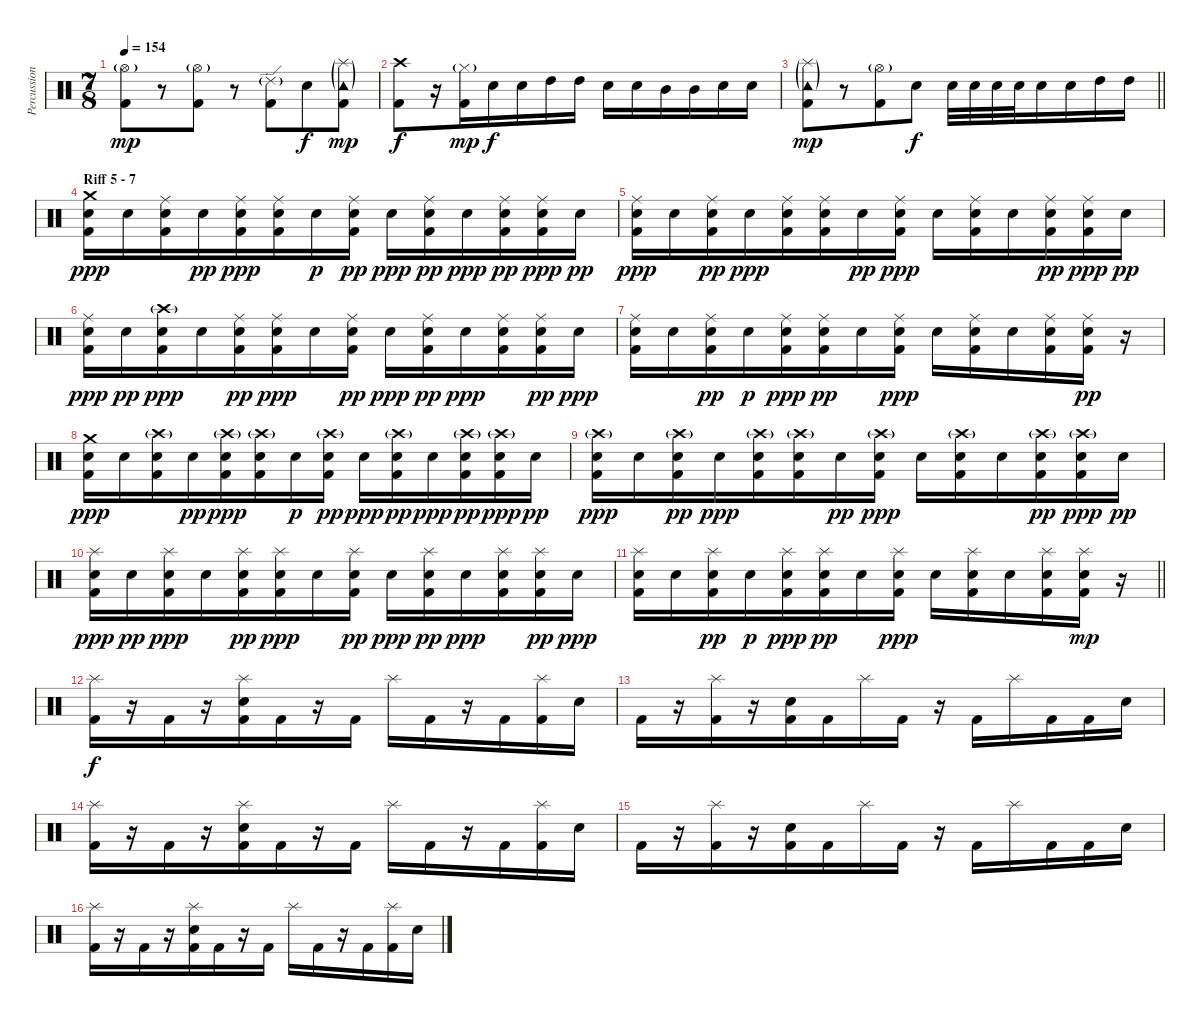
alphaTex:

\track ("Percussions" "Percussion") {instrument percussion}
\staff {score}
\articulation defaults
\ts (7 8)
\tempo 154
\clef neutral
\ks c
("Hi-Hat (open)"{g} "Kick (hit) 2").8{dy mp} r.8 ("Hi-Hat (open)"{g} "Kick (hit) 2").8 r.8 ("Ride (edge) 2"{g} "Kick (hit) 2").8 "Electric Snare (hit)".8{dy f} ("Tambourine (hit)"{g} "Splash (hit)"{g} "Kick (hit) 2").8{dy mp} |
("Crash high (hit)" "Kick (hit) 2").8{dy f} r.16 ("Hi-Hat (closed)"{g} "Kick (hit) 2").16{dy mp} "Electric Snare (hit)".16{dy f} "Electric Snare (hit)".16 "High Tom (hit)".16 "High Tom (hit)".16 "Electric Snare (hit)".16 "Electric Snare (hit)".16 "Mid Tom (hit)".16 "Mid Tom (hit)".16 "Electric Snare (hit)".16 "Electric Snare (hit)".16 |
\barLineRight lightlight
("Tambourine (hit)"{g} "Splash (hit)"{g} "Kick (hit) 2").8{dy mp} r.8 ("Hi-Hat (open)"{g} "Kick (hit) 2").8 "Electric Snare (hit)".8{dy f} "Electric Snare (hit)".32 "Electric Snare (hit)".32 "Electric Snare (hit)".32 "Electric Snare (hit)".32 "Electric Snare (hit)".16 "Electric Snare (hit)".16 "High Tom (hit)".16 "High Tom (hit)".16 |
\section ("" "Riff 5 - 7")
("Crash medium (hit)" "Electric Snare (hit)" "Kick (hit) 2").16{dy ppp} "Electric Snare (hit)".16 ("Ride (middle)" "Electric Snare (hit)" "Kick (hit) 2").16 "Electric Snare (hit)".16{dy pp} ("Ride (middle)" "Electric Snare (hit)" "Kick (hit) 2").16{dy ppp} ("Ride (middle)" "Electric Snare (hit)" "Kick (hit) 2").16 "Electric Snare (hit)".16{dy p} ("Ride (middle)" "Electric Snare (hit)" "Kick (hit) 2").16{dy pp} "Electric Snare (hit)".16{dy ppp} ("Ride (middle)" "Electric Snare (hit)" "Kick (hit) 2").16{dy pp} "Electric Snare (hit)".16{dy ppp} ("Ride (middle)" "Electric Snare (hit)" "Kick (hit) 2").16{dy pp} ("Ride (middle)" "Electric Snare (hit)" "Kick (hit) 2").16{dy ppp} "Electric Snare (hit)".16{dy pp} |
("Ride (middle)" "Electric Snare (hit)" "Kick (hit) 2").16{dy ppp} "Electric Snare (hit)".16 ("Ride (middle)" "Electric Snare (hit)" "Kick (hit) 2").16{dy pp} "Electric Snare (hit)".16{dy ppp} ("Ride (middle)" "Electric Snare (hit)" "Kick (hit) 2").16 ("Ride (middle)" "Electric Snare (hit)" "Kick (hit) 2").16 "Electric Snare (hit)".16{dy pp} ("Ride (middle)" "Electric Snare (hit)" "Kick (hit) 2").16{dy ppp} "Electric Snare (hit)".16 ("Ride (middle)" "Electric Snare (hit)" "Kick (hit) 2").16 "Electric Snare (hit)".16 ("Ride (middle)" "Electric Snare (hit)" "Kick (hit) 2").16{dy pp} ("Ride (middle)" "Electric Snare (hit)" "Kick (hit) 2").16{dy ppp} "Electric Snare (hit)".16{dy pp} |
("Ride (middle)" "Electric Snare (hit)" "Kick (hit) 2").16{dy ppp} "Electric Snare (hit)".16{dy pp} ("Crash high (hit)"{g} "Electric Snare (hit)" "Kick (hit) 2").16{dy ppp} "Electric Snare (hit)".16 ("Ride (middle)" "Electric Snare (hit)" "Kick (hit) 2").16{dy pp} ("Ride (middle)" "Electric Snare (hit)" "Kick (hit) 2").16{dy ppp} "Electric Snare (hit)".16 ("Ride (middle)" "Electric Snare (hit)" "Kick (hit) 2").16{dy pp} "Electric Snare (hit)".16{dy ppp} ("Ride (middle)" "Electric Snare (hit)" "Kick (hit) 2").16{dy pp} "Electric Snare (hit)".16{dy ppp} ("Ride (middle)" "Electric Snare (hit)" "Kick (hit) 2").16 ("Ride (middle)" "Electric Snare (hit)" "Kick (hit) 2").16{dy pp} "Electric Snare (hit)".16{dy ppp} |
("Ride (middle)" "Electric Snare (hit)" "Kick (hit) 2").16 "Electric Snare (hit)".16 ("Ride (middle)" "Electric Snare (hit)" "Kick (hit) 2").16{dy pp} "Electric Snare (hit)".16{dy p} ("Ride (middle)" "Electric Snare (hit)" "Kick (hit) 2").16{dy ppp} ("Ride (middle)" "Electric Snare (hit)" "Kick (hit) 2").16{dy pp} "Electric Snare (hit)".16 ("Ride (middle)" "Electric Snare (hit)" "Kick (hit) 2").16{dy ppp} "Electric Snare (hit)".16 ("Ride (middle)" "Electric Snare (hit)" "Kick (hit) 2").16 "Electric Snare (hit)".16 ("Ride (middle)" "Electric Snare (hit)" "Kick (hit) 2").16 ("Ride (middle)" "Electric Snare (hit)" "Kick (hit) 2").16{dy pp} r.16 |
("Crash medium (hit)" "Electric Snare (hit)" "Kick (hit) 2").16{dy ppp} "Electric Snare (hit)".16 ("Crash high (hit)"{g} "Electric Snare (hit)" "Kick (hit) 2").16 "Electric Snare (hit)".16{dy pp} ("Crash high (hit)"{g} "Electric Snare (hit)" "Kick (hit) 2").16{dy ppp} ("Crash high (hit)"{g} "Electric Snare (hit)" "Kick (hit) 2").16 "Electric Snare (hit)".16{dy p} ("Crash high (hit)"{g} "Electric Snare (hit)" "Kick (hit) 2").16{dy pp} "Electric Snare (hit)".16{dy ppp} ("Crash high (hit)"{g} "Electric Snare (hit)" "Kick (hit) 2").16{dy pp} "Electric Snare (hit)".16{dy ppp} ("Crash high (hit)"{g} "Electric Snare (hit)" "Kick (hit) 2").16{dy pp} ("Crash high (hit)"{g} "Electric Snare (hit)" "Kick (hit) 2").16{dy ppp} "Electric Snare (hit)".16{dy pp} |
("Crash high (hit)"{g} "Electric Snare (hit)" "Kick (hit) 2").16{dy ppp} "Electric Snare (hit)".16 ("Crash high (hit)"{g} "Electric Snare (hit)" "Kick (hit) 2").16{dy pp} "Electric Snare (hit)".16{dy ppp} ("Crash high (hit)"{g} "Electric Snare (hit)" "Kick (hit) 2").16 ("Crash high (hit)"{g} "Electric Snare (hit)" "Kick (hit) 2").16 "Electric Snare (hit)".16{dy pp} ("Crash high (hit)"{g} "Electric Snare (hit)" "Kick (hit) 2").16{dy ppp} "Electric Snare (hit)".16 ("Crash high (hit)"{g} "Electric Snare (hit)" "Kick (hit) 2").16 "Electric Snare (hit)".16 ("Crash high (hit)"{g} "Electric Snare (hit)" "Kick (hit) 2").16{dy pp} ("Crash high (hit)"{g} "Electric Snare (hit)" "Kick (hit) 2").16{dy ppp} "Electric Snare (hit)".16{dy pp} |
("Splash (hit)" "Electric Snare (hit)" "Kick (hit) 2").16{dy ppp} "Electric Snare (hit)".16{dy pp} ("Splash (hit)" "Electric Snare (hit)" "Kick (hit) 2").16{dy ppp} "Electric Snare (hit)".16 ("Splash (hit)" "Electric Snare (hit)" "Kick (hit) 2").16{dy pp} ("Splash (hit)" "Electric Snare (hit)" "Kick (hit) 2").16{dy ppp} "Electric Snare (hit)".16 ("Splash (hit)" "Electric Snare (hit)" "Kick (hit) 2").16{dy pp} "Electric Snare (hit)".16{dy ppp} ("Splash (hit)" "Electric Snare (hit)" "Kick (hit) 2").16{dy pp} "Electric Snare (hit)".16{dy ppp} ("Splash (hit)" "Electric Snare (hit)" "Kick (hit) 2").16 ("Splash (hit)" "Electric Snare (hit)" "Kick (hit) 2").16{dy pp} "Electric Snare (hit)".16{dy ppp} |
\barLineRight lightlight
("Splash (hit)" "Electric Snare (hit)" "Kick (hit) 2").16 "Electric Snare (hit)".16 ("Splash (hit)" "Electric Snare (hit)" "Kick (hit) 2").16{dy pp} "Electric Snare (hit)".16{dy p} ("Splash (hit)" "Electric Snare (hit)" "Kick (hit) 2").16{dy ppp} ("Splash (hit)" "Electric Snare (hit)" "Kick (hit) 2").16{dy pp} "Electric Snare (hit)".16 ("Splash (hit)" "Electric Snare (hit)" "Kick (hit) 2").16{dy ppp} "Electric Snare (hit)".16 ("Splash (hit)" "Electric Snare (hit)" "Kick (hit) 2").16 "Electric Snare (hit)".16 ("Splash (hit)" "Electric Snare (hit)" "Kick (hit) 2").16 ("Splash (hit)" "Electric Snare (hit)" "Kick (hit) 2").16{dy mp} r.16 |
\section ("" "")
("Splash (hit)" "Kick (hit) 2").16{dy f} r.16 "Kick (hit) 2".16 r.16 ("Splash (hit)" "Electric Snare (hit)" "Kick (hit) 2").16 "Kick (hit) 2".16 r.16 "Kick (hit) 2".16 "Splash (hit)".16 "Kick (hit) 2".16 r.16 "Kick (hit) 2".16 ("Splash (hit)" "Kick (hit) 2").16 "Electric Snare (hit)".16 |
"Kick (hit) 2".16 r.16 ("Splash (hit)" "Kick (hit) 2").16 r.16 ("Electric Snare (hit)" "Kick (hit) 2").16 "Kick (hit) 2".16 "Splash (hit)".16 "Kick (hit) 2".16 r.16 "Kick (hit) 2".16 "Splash (hit)".16 "Kick (hit) 2".16 "Kick (hit) 2".16 "Electric Snare (hit)".16 |
("Splash (hit)" "Kick (hit) 2").16 r.16 "Kick (hit) 2".16 r.16 ("Splash (hit)" "Electric Snare (hit)" "Kick (hit) 2").16 "Kick (hit) 2".16 r.16 "Kick (hit) 2".16 "Splash (hit)".16 "Kick (hit) 2".16 r.16 "Kick (hit) 2".16 ("Splash (hit)" "Kick (hit) 2").16 "Electric Snare (hit)".16 |
"Kick (hit) 2".16 r.16 ("Splash (hit)" "Kick (hit) 2").16 r.16 ("Electric Snare (hit)" "Kick (hit) 2").16 "Kick (hit) 2".16 "Splash (hit)".16 "Kick (hit) 2".16 r.16 "Kick (hit) 2".16 "Splash (hit)".16 "Kick (hit) 2".16 "Kick (hit) 2".16 "Electric Snare (hit)".16 |
("Splash (hit)" "Kick (hit) 2").16 r.16 "Kick (hit) 2".16 r.16 ("Splash (hit)" "Electric Snare (hit)" "Kick (hit) 2").16 "Kick (hit) 2".16 r.16 "Kick (hit) 2".16 "Splash (hit)".16 "Kick (hit) 2".16 r.16 "Kick (hit) 2".16 ("Splash (hit)" "Kick (hit) 2").16 "Electric Snare (hit)".16
